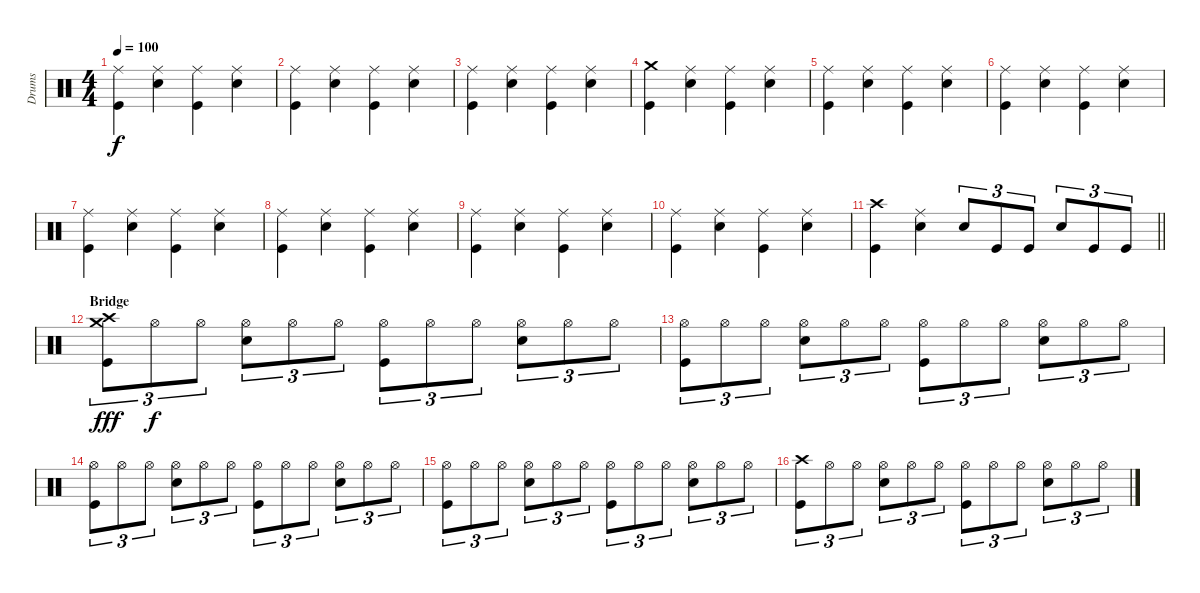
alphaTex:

\track ("Drums" "Drums") {instrument percussion}
\staff {score}
\articulation defaults
\ts (4 4)
\tempo 100
\clef neutral
\ks c
("Ride (middle)" "Kick (hit)").4{dy f} ("Ride (middle)" "Snare (hit) 2").4 ("Ride (middle)" "Kick (hit)").4 ("Ride (middle)" "Snare (hit) 2").4 |
("Ride (middle)" "Kick (hit)").4 ("Ride (middle)" "Snare (hit) 2").4 ("Ride (middle)" "Kick (hit)").4 ("Ride (middle)" "Snare (hit) 2").4 |
("Ride (middle)" "Kick (hit)").4 ("Ride (middle)" "Snare (hit) 2").4 ("Ride (middle)" "Kick (hit)").4 ("Ride (middle)" "Snare (hit) 2").4 |
("Crash medium (hit)" "Kick (hit)").4 ("Ride (middle)" "Snare (hit) 2").4 ("Ride (middle)" "Kick (hit)").4 ("Ride (middle)" "Snare (hit) 2").4 |
("Ride (middle)" "Kick (hit)").4 ("Ride (middle)" "Snare (hit) 2").4 ("Ride (middle)" "Kick (hit)").4 ("Ride (middle)" "Snare (hit) 2").4 |
("Ride (middle)" "Kick (hit)").4 ("Ride (middle)" "Snare (hit) 2").4 ("Ride (middle)" "Kick (hit)").4 ("Ride (middle)" "Snare (hit) 2").4 |
("Ride (middle)" "Kick (hit)").4 ("Ride (middle)" "Snare (hit) 2").4 ("Ride (middle)" "Kick (hit)").4 ("Ride (middle)" "Snare (hit) 2").4 |
("Ride (middle)" "Kick (hit)").4 ("Ride (middle)" "Snare (hit) 2").4 ("Ride (middle)" "Kick (hit)").4 ("Ride (middle)" "Snare (hit) 2").4 |
("Ride (middle)" "Kick (hit)").4 ("Ride (middle)" "Snare (hit) 2").4 ("Ride (middle)" "Kick (hit)").4 ("Ride (middle)" "Snare (hit) 2").4 |
("Ride (middle)" "Kick (hit)").4 ("Ride (middle)" "Snare (hit) 2").4 ("Ride (middle)" "Kick (hit)").4 ("Ride (middle)" "Snare (hit) 2").4 |
\barLineRight lightlight
("Crash high (hit)" "Kick (hit)").4 ("Ride (middle)" "Snare (hit) 2").4 "Snare (hit) 2".8{tu (3 2)} "Kick (hit)".8{tu (3 2)} "Kick (hit)".8{tu (3 2)} "Snare (hit) 2".8{tu (3 2)} "Kick (hit)".8{tu (3 2)} "Kick (hit)".8{tu (3 2)} |
\section ("" "Bridge")
("Crash high (hit)" "Crash medium (hit)" "Kick (hit)").8{tu (3 2) dy fff} "Hi-Hat (open)".8{tu (3 2) dy f} "Hi-Hat (open)".8{tu (3 2)} ("Hi-Hat (open)" "Snare (hit) 2").8{tu (3 2)} "Hi-Hat (open)".8{tu (3 2)} "Hi-Hat (open)".8{tu (3 2)} ("Hi-Hat (open)" "Kick (hit)").8{tu (3 2)} "Hi-Hat (open)".8{tu (3 2)} "Hi-Hat (open)".8{tu (3 2)} ("Hi-Hat (open)" "Snare (hit) 2").8{tu (3 2)} "Hi-Hat (open)".8{tu (3 2)} "Hi-Hat (open)".8{tu (3 2)} |
("Hi-Hat (open)" "Kick (hit)").8{tu (3 2)} "Hi-Hat (open)".8{tu (3 2)} "Hi-Hat (open)".8{tu (3 2)} ("Hi-Hat (open)" "Snare (hit) 2").8{tu (3 2)} "Hi-Hat (open)".8{tu (3 2)} "Hi-Hat (open)".8{tu (3 2)} ("Hi-Hat (open)" "Kick (hit)").8{tu (3 2)} "Hi-Hat (open)".8{tu (3 2)} "Hi-Hat (open)".8{tu (3 2)} ("Hi-Hat (open)" "Snare (hit) 2").8{tu (3 2)} "Hi-Hat (open)".8{tu (3 2)} "Hi-Hat (open)".8{tu (3 2)} |
("Hi-Hat (open)" "Kick (hit)").8{tu (3 2)} "Hi-Hat (open)".8{tu (3 2)} "Hi-Hat (open)".8{tu (3 2)} ("Hi-Hat (open)" "Snare (hit) 2").8{tu (3 2)} "Hi-Hat (open)".8{tu (3 2)} "Hi-Hat (open)".8{tu (3 2)} ("Hi-Hat (open)" "Kick (hit)").8{tu (3 2)} "Hi-Hat (open)".8{tu (3 2)} "Hi-Hat (open)".8{tu (3 2)} ("Hi-Hat (open)" "Snare (hit) 2").8{tu (3 2)} "Hi-Hat (open)".8{tu (3 2)} "Hi-Hat (open)".8{tu (3 2)} |
("Hi-Hat (open)" "Kick (hit)").8{tu (3 2)} "Hi-Hat (open)".8{tu (3 2)} "Hi-Hat (open)".8{tu (3 2)} ("Hi-Hat (open)" "Snare (hit) 2").8{tu (3 2)} "Hi-Hat (open)".8{tu (3 2)} "Hi-Hat (open)".8{tu (3 2)} ("Hi-Hat (open)" "Kick (hit)").8{tu (3 2)} "Hi-Hat (open)".8{tu (3 2)} "Hi-Hat (open)".8{tu (3 2)} ("Hi-Hat (open)" "Snare (hit) 2").8{tu (3 2)} "Hi-Hat (open)".8{tu (3 2)} "Hi-Hat (open)".8{tu (3 2)} |
("Crash high (hit)" "Kick (hit)").8{tu (3 2)} "Hi-Hat (open)".8{tu (3 2)} "Hi-Hat (open)".8{tu (3 2)} ("Hi-Hat (open)" "Snare (hit) 2").8{tu (3 2)} "Hi-Hat (open)".8{tu (3 2)} "Hi-Hat (open)".8{tu (3 2)} ("Hi-Hat (open)" "Kick (hit)").8{tu (3 2)} "Hi-Hat (open)".8{tu (3 2)} "Hi-Hat (open)".8{tu (3 2)} ("Hi-Hat (open)" "Snare (hit) 2").8{tu (3 2)} "Hi-Hat (open)".8{tu (3 2)} "Hi-Hat (open)".8{tu (3 2)}
